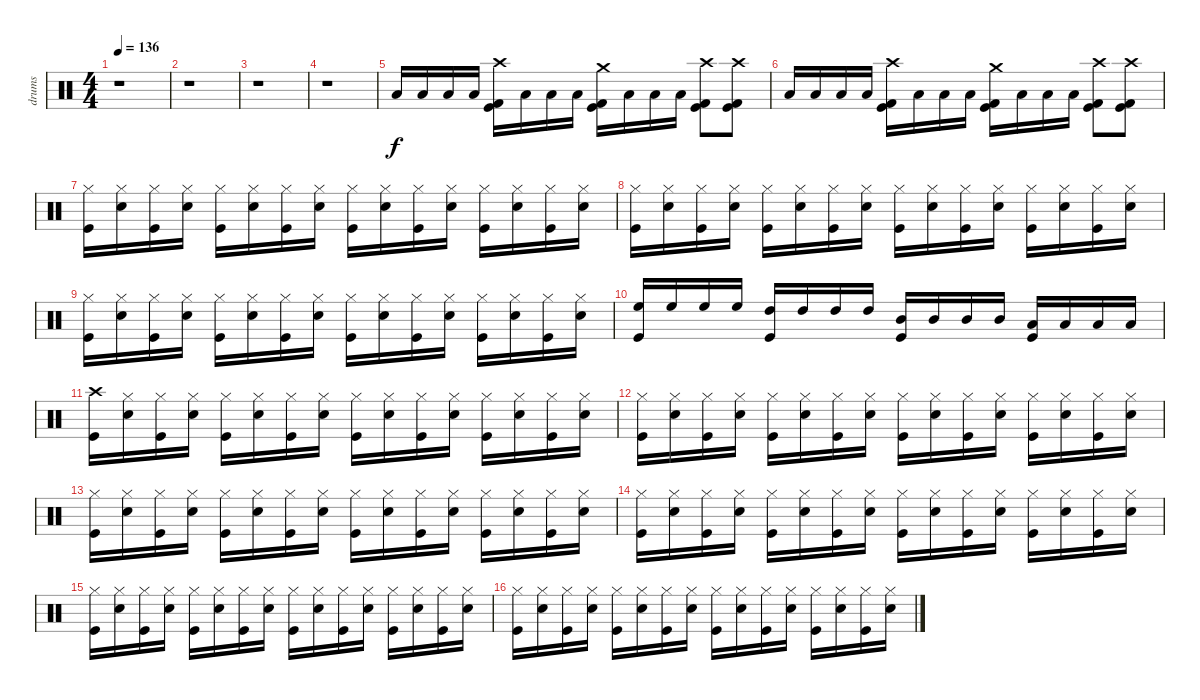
\track ("drums" "drums") {instrument percussion}
\staff {score}
\articulation defaults
\ts (4 4)
\tempo 136
\clef neutral
\ks c
r.1{dy f} |
r.1 |
r.1 |
r.1 |
"Low Tom (hit)".16 "Low Tom (hit)".16 "Low Tom (hit)".16 "Low Tom (hit)".16 ("Kick (hit) 2" "Kick (hit)" "Crash high (hit)").16 "Low Tom (hit)".16 "Low Tom (hit)".16 "Low Tom (hit)".16 ("Kick (hit)" "Kick (hit) 2" "Crash medium (hit)").16 "Low Tom (hit)".16 "Low Tom (hit)".16 "Low Tom (hit)".16 ("Kick (hit)" "Kick (hit) 2" "Crash high (hit)").8 ("Kick (hit)" "Kick (hit) 2" "Crash high (hit)").8 |
"Low Tom (hit)".16 "Low Tom (hit)".16 "Low Tom (hit)".16 "Low Tom (hit)".16 ("Kick (hit) 2" "Kick (hit)" "Crash high (hit)").16 "Low Tom (hit)".16 "Low Tom (hit)".16 "Low Tom (hit)".16 ("Kick (hit)" "Kick (hit) 2" "Crash medium (hit)").16 "Low Tom (hit)".16 "Low Tom (hit)".16 "Low Tom (hit)".16 ("Kick (hit)" "Kick (hit) 2" "Crash high (hit)").8 ("Kick (hit)" "Kick (hit) 2" "Crash high (hit)").8 |
("Hi-Hat (closed)" "Kick (hit)").16 ("Hi-Hat (closed)" "Snare (hit) 2").16 ("Hi-Hat (closed)" "Kick (hit)").16 ("Hi-Hat (closed)" "Snare (hit) 2").16 ("Hi-Hat (closed)" "Kick (hit)").16 ("Hi-Hat (closed)" "Snare (hit) 2").16 ("Hi-Hat (closed)" "Kick (hit)").16 ("Hi-Hat (closed)" "Snare (hit) 2").16 ("Hi-Hat (closed)" "Kick (hit)").16 ("Hi-Hat (closed)" "Snare (hit) 2").16 ("Hi-Hat (closed)" "Kick (hit)").16 ("Hi-Hat (closed)" "Snare (hit) 2").16 ("Hi-Hat (closed)" "Kick (hit)").16 ("Hi-Hat (closed)" "Snare (hit) 2").16 ("Hi-Hat (closed)" "Kick (hit)").16 ("Hi-Hat (closed)" "Snare (hit) 2").16 |
("Hi-Hat (closed)" "Kick (hit)").16 ("Hi-Hat (closed)" "Snare (hit) 2").16 ("Hi-Hat (closed)" "Kick (hit)").16 ("Hi-Hat (closed)" "Snare (hit) 2").16 ("Hi-Hat (closed)" "Kick (hit)").16 ("Hi-Hat (closed)" "Snare (hit) 2").16 ("Hi-Hat (closed)" "Kick (hit)").16 ("Hi-Hat (closed)" "Snare (hit) 2").16 ("Hi-Hat (closed)" "Kick (hit)").16 ("Hi-Hat (closed)" "Snare (hit) 2").16 ("Hi-Hat (closed)" "Kick (hit)").16 ("Hi-Hat (closed)" "Snare (hit) 2").16 ("Hi-Hat (closed)" "Kick (hit)").16 ("Hi-Hat (closed)" "Snare (hit) 2").16 ("Hi-Hat (closed)" "Kick (hit)").16 ("Hi-Hat (closed)" "Snare (hit) 2").16 |
("Hi-Hat (closed)" "Kick (hit)").16 ("Hi-Hat (closed)" "Snare (hit) 2").16 ("Hi-Hat (closed)" "Kick (hit)").16 ("Hi-Hat (closed)" "Snare (hit) 2").16 ("Hi-Hat (closed)" "Kick (hit)").16 ("Hi-Hat (closed)" "Snare (hit) 2").16 ("Hi-Hat (closed)" "Kick (hit)").16 ("Hi-Hat (closed)" "Snare (hit) 2").16 ("Hi-Hat (closed)" "Kick (hit)").16 ("Hi-Hat (closed)" "Snare (hit) 2").16 ("Hi-Hat (closed)" "Kick (hit)").16 ("Hi-Hat (closed)" "Snare (hit) 2").16 ("Hi-Hat (closed)" "Kick (hit)").16 ("Hi-Hat (closed)" "Snare (hit) 2").16 ("Hi-Hat (closed)" "Kick (hit)").16 ("Hi-Hat (closed)" "Snare (hit) 2").16 |
("High Floor Tom (hit)" "Kick (hit)").16 "High Floor Tom (hit)".16 "High Floor Tom (hit)".16 "High Floor Tom (hit)".16 ("High Tom (hit)" "Kick (hit)").16 "High Tom (hit)".16 "High Tom (hit)".16 "High Tom (hit)".16 ("Mid Tom (hit)" "Kick (hit)").16 "Mid Tom (hit)".16 "Mid Tom (hit)".16 "Mid Tom (hit)".16 ("Low Tom (hit)" "Kick (hit)").16 "Low Tom (hit)".16 "Low Tom (hit)".16 "Low Tom (hit)".16 |
("Crash high (hit)" "Kick (hit)").16 ("Hi-Hat (closed)" "Snare (hit) 2").16 ("Hi-Hat (closed)" "Kick (hit)").16 ("Hi-Hat (closed)" "Snare (hit) 2").16 ("Hi-Hat (closed)" "Kick (hit)").16 ("Hi-Hat (closed)" "Snare (hit) 2").16 ("Hi-Hat (closed)" "Kick (hit)").16 ("Hi-Hat (closed)" "Snare (hit) 2").16 ("Hi-Hat (closed)" "Kick (hit)").16 ("Hi-Hat (closed)" "Snare (hit) 2").16 ("Hi-Hat (closed)" "Kick (hit)").16 ("Hi-Hat (closed)" "Snare (hit) 2").16 ("Hi-Hat (closed)" "Kick (hit)").16 ("Hi-Hat (closed)" "Snare (hit) 2").16 ("Hi-Hat (closed)" "Kick (hit)").16 ("Hi-Hat (closed)" "Snare (hit) 2").16 |
("Hi-Hat (closed)" "Kick (hit)").16 ("Hi-Hat (closed)" "Snare (hit) 2").16 ("Hi-Hat (closed)" "Kick (hit)").16 ("Hi-Hat (closed)" "Snare (hit) 2").16 ("Hi-Hat (closed)" "Kick (hit)").16 ("Hi-Hat (closed)" "Snare (hit) 2").16 ("Hi-Hat (closed)" "Kick (hit)").16 ("Hi-Hat (closed)" "Snare (hit) 2").16 ("Hi-Hat (closed)" "Kick (hit)").16 ("Hi-Hat (closed)" "Snare (hit) 2").16 ("Hi-Hat (closed)" "Kick (hit)").16 ("Hi-Hat (closed)" "Snare (hit) 2").16 ("Hi-Hat (closed)" "Kick (hit)").16 ("Hi-Hat (closed)" "Snare (hit) 2").16 ("Hi-Hat (closed)" "Kick (hit)").16 ("Hi-Hat (closed)" "Snare (hit) 2").16 |
("Hi-Hat (closed)" "Kick (hit)").16 ("Hi-Hat (closed)" "Snare (hit) 2").16 ("Hi-Hat (closed)" "Kick (hit)").16 ("Hi-Hat (closed)" "Snare (hit) 2").16 ("Hi-Hat (closed)" "Kick (hit)").16 ("Hi-Hat (closed)" "Snare (hit) 2").16 ("Hi-Hat (closed)" "Kick (hit)").16 ("Hi-Hat (closed)" "Snare (hit) 2").16 ("Hi-Hat (closed)" "Kick (hit)").16 ("Hi-Hat (closed)" "Snare (hit) 2").16 ("Hi-Hat (closed)" "Kick (hit)").16 ("Hi-Hat (closed)" "Snare (hit) 2").16 ("Hi-Hat (closed)" "Kick (hit)").16 ("Hi-Hat (closed)" "Snare (hit) 2").16 ("Hi-Hat (closed)" "Kick (hit)").16 ("Hi-Hat (closed)" "Snare (hit) 2").16 |
("Hi-Hat (closed)" "Kick (hit)").16 ("Hi-Hat (closed)" "Snare (hit) 2").16 ("Hi-Hat (closed)" "Kick (hit)").16 ("Hi-Hat (closed)" "Snare (hit) 2").16 ("Hi-Hat (closed)" "Kick (hit)").16 ("Hi-Hat (closed)" "Snare (hit) 2").16 ("Hi-Hat (closed)" "Kick (hit)").16 ("Hi-Hat (closed)" "Snare (hit) 2").16 ("Hi-Hat (closed)" "Kick (hit)").16 ("Hi-Hat (closed)" "Snare (hit) 2").16 ("Hi-Hat (closed)" "Kick (hit)").16 ("Hi-Hat (closed)" "Snare (hit) 2").16 ("Hi-Hat (closed)" "Kick (hit)").16 ("Hi-Hat (closed)" "Snare (hit) 2").16 ("Hi-Hat (closed)" "Kick (hit)").16 ("Hi-Hat (closed)" "Snare (hit) 2").16 |
("Hi-Hat (closed)" "Kick (hit)").16 ("Hi-Hat (closed)" "Snare (hit) 2").16 ("Hi-Hat (closed)" "Kick (hit)").16 ("Hi-Hat (closed)" "Snare (hit) 2").16 ("Hi-Hat (closed)" "Kick (hit)").16 ("Hi-Hat (closed)" "Snare (hit) 2").16 ("Hi-Hat (closed)" "Kick (hit)").16 ("Hi-Hat (closed)" "Snare (hit) 2").16 ("Hi-Hat (closed)" "Kick (hit)").16 ("Hi-Hat (closed)" "Snare (hit) 2").16 ("Hi-Hat (closed)" "Kick (hit)").16 ("Hi-Hat (closed)" "Snare (hit) 2").16 ("Hi-Hat (closed)" "Kick (hit)").16 ("Hi-Hat (closed)" "Snare (hit) 2").16 ("Hi-Hat (closed)" "Kick (hit)").16 ("Hi-Hat (closed)" "Snare (hit) 2").16 |
("Hi-Hat (closed)" "Kick (hit)").16 ("Hi-Hat (closed)" "Snare (hit) 2").16 ("Hi-Hat (closed)" "Kick (hit)").16 ("Hi-Hat (closed)" "Snare (hit) 2").16 ("Hi-Hat (closed)" "Kick (hit)").16 ("Hi-Hat (closed)" "Snare (hit) 2").16 ("Hi-Hat (closed)" "Kick (hit)").16 ("Hi-Hat (closed)" "Snare (hit) 2").16 ("Hi-Hat (closed)" "Kick (hit)").16 ("Hi-Hat (closed)" "Snare (hit) 2").16 ("Hi-Hat (closed)" "Kick (hit)").16 ("Hi-Hat (closed)" "Snare (hit) 2").16 ("Hi-Hat (closed)" "Kick (hit)").16 ("Hi-Hat (closed)" "Snare (hit) 2").16 ("Hi-Hat (closed)" "Kick (hit)").16 ("Hi-Hat (closed)" "Snare (hit) 2").16
